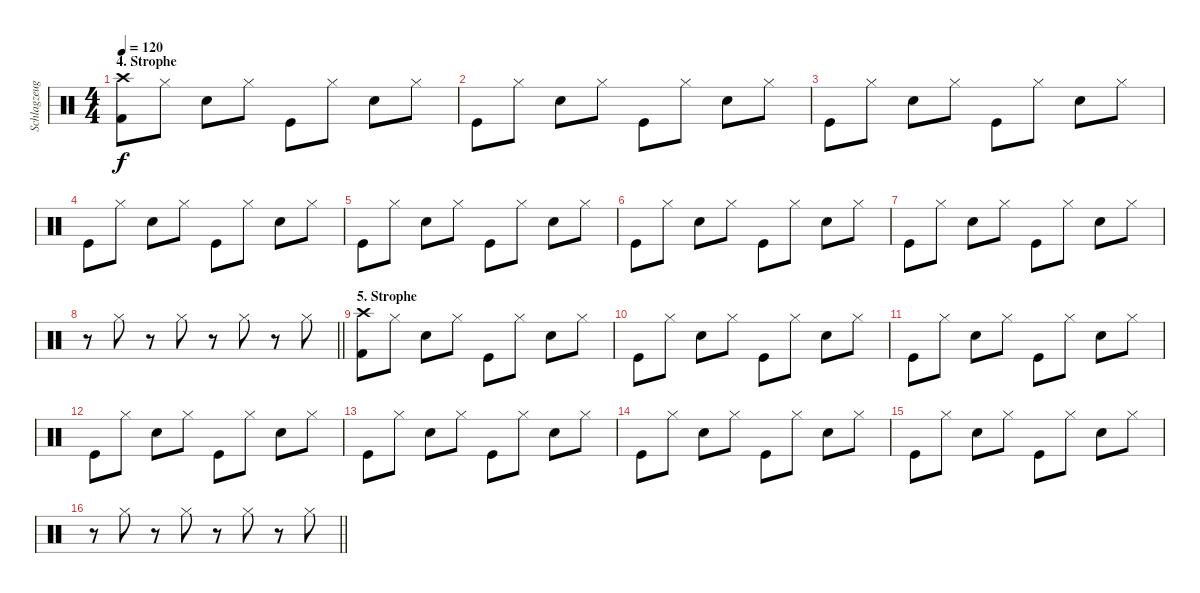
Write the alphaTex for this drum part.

\track ("Schlagzeug" "Schlagzeug") {instrument percussion}
\staff {score}
\articulation defaults
\ts (4 4)
\section ("" "4. Strophe")
\tempo 120
\clef neutral
\ks c
("Crash high (hit)" "Kick (hit) 2").8{dy f} "Hi-Hat (closed)".8 "Snare (hit) 2".8 "Hi-Hat (closed)".8 "Kick (hit)".8 "Hi-Hat (closed)".8 "Electric Snare (hit)".8 "Hi-Hat (closed)".8 |
"Kick (hit)".8 "Hi-Hat (closed)".8 "Electric Snare (hit)".8 "Hi-Hat (closed)".8 "Kick (hit)".8 "Hi-Hat (closed)".8 "Electric Snare (hit)".8 "Hi-Hat (closed)".8 |
"Kick (hit)".8 "Hi-Hat (closed)".8 "Electric Snare (hit)".8 "Hi-Hat (closed)".8 "Kick (hit)".8 "Hi-Hat (closed)".8 "Electric Snare (hit)".8 "Hi-Hat (closed)".8 |
"Kick (hit)".8 "Hi-Hat (closed)".8 "Electric Snare (hit)".8 "Hi-Hat (closed)".8 "Kick (hit)".8 "Hi-Hat (closed)".8 "Electric Snare (hit)".8 "Hi-Hat (closed)".8 |
"Kick (hit)".8 "Hi-Hat (closed)".8 "Electric Snare (hit)".8 "Hi-Hat (closed)".8 "Kick (hit)".8 "Hi-Hat (closed)".8 "Electric Snare (hit)".8 "Hi-Hat (closed)".8 |
"Kick (hit)".8 "Hi-Hat (closed)".8 "Electric Snare (hit)".8 "Hi-Hat (closed)".8 "Kick (hit)".8 "Hi-Hat (closed)".8 "Electric Snare (hit)".8 "Hi-Hat (closed)".8 |
"Kick (hit)".8 "Hi-Hat (closed)".8 "Electric Snare (hit)".8 "Hi-Hat (closed)".8 "Kick (hit)".8 "Hi-Hat (closed)".8 "Electric Snare (hit)".8 "Hi-Hat (closed)".8 |
\barLineRight lightlight
r.8 "Hi-Hat (closed)".8 r.8 "Hi-Hat (closed)".8 r.8 "Hi-Hat (closed)".8 r.8 "Hi-Hat (closed)".8 |
\section ("" "5. Strophe")
("Crash high (hit)" "Kick (hit) 2").8 "Hi-Hat (closed)".8 "Snare (hit) 2".8 "Hi-Hat (closed)".8 "Kick (hit)".8 "Hi-Hat (closed)".8 "Electric Snare (hit)".8 "Hi-Hat (closed)".8 |
"Kick (hit)".8 "Hi-Hat (closed)".8 "Electric Snare (hit)".8 "Hi-Hat (closed)".8 "Kick (hit)".8 "Hi-Hat (closed)".8 "Electric Snare (hit)".8 "Hi-Hat (closed)".8 |
"Kick (hit)".8 "Hi-Hat (closed)".8 "Electric Snare (hit)".8 "Hi-Hat (closed)".8 "Kick (hit)".8 "Hi-Hat (closed)".8 "Electric Snare (hit)".8 "Hi-Hat (closed)".8 |
"Kick (hit)".8 "Hi-Hat (closed)".8 "Electric Snare (hit)".8 "Hi-Hat (closed)".8 "Kick (hit)".8 "Hi-Hat (closed)".8 "Electric Snare (hit)".8 "Hi-Hat (closed)".8 |
"Kick (hit)".8 "Hi-Hat (closed)".8 "Electric Snare (hit)".8 "Hi-Hat (closed)".8 "Kick (hit)".8 "Hi-Hat (closed)".8 "Electric Snare (hit)".8 "Hi-Hat (closed)".8 |
"Kick (hit)".8 "Hi-Hat (closed)".8 "Electric Snare (hit)".8 "Hi-Hat (closed)".8 "Kick (hit)".8 "Hi-Hat (closed)".8 "Electric Snare (hit)".8 "Hi-Hat (closed)".8 |
"Kick (hit)".8 "Hi-Hat (closed)".8 "Electric Snare (hit)".8 "Hi-Hat (closed)".8 "Kick (hit)".8 "Hi-Hat (closed)".8 "Electric Snare (hit)".8 "Hi-Hat (closed)".8 |
\barLineRight lightlight
r.8 "Hi-Hat (closed)".8 r.8 "Hi-Hat (closed)".8 r.8 "Hi-Hat (closed)".8 r.8 "Hi-Hat (closed)".8
